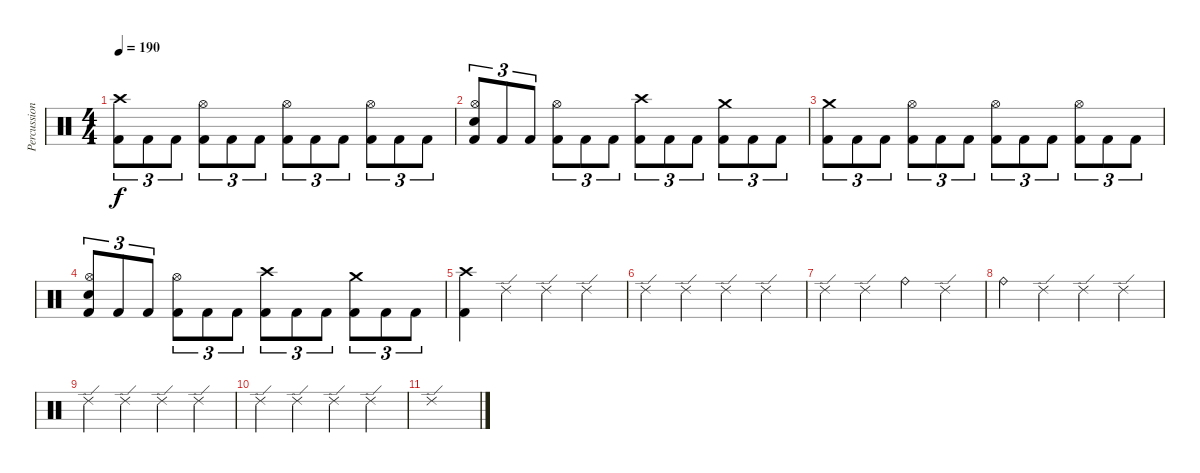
\track ("Percussion" "Percussion") {instrument percussion}
\staff {score}
\articulation defaults
\ts (4 4)
\tempo 190
\clef neutral
\ks c
("Crash high (hit)" "Kick (hit) 2").8{tu (3 2) dy f} "Kick (hit) 2".8{tu (3 2)} "Kick (hit) 2".8{tu (3 2)} ("Hi-Hat (open)" "Kick (hit) 2").8{tu (3 2)} "Kick (hit) 2".8{tu (3 2)} "Kick (hit) 2".8{tu (3 2)} ("Hi-Hat (open)" "Kick (hit) 2").8{tu (3 2)} "Kick (hit) 2".8{tu (3 2)} "Kick (hit) 2".8{tu (3 2)} ("Hi-Hat (open)" "Kick (hit) 2").8{tu (3 2)} "Kick (hit) 2".8{tu (3 2)} "Kick (hit) 2".8{tu (3 2)} |
("Hi-Hat (open)" "Snare (hit) 2" "Kick (hit) 2").8{tu (3 2)} "Kick (hit) 2".8{tu (3 2)} "Kick (hit) 2".8{tu (3 2)} ("Hi-Hat (open)" "Kick (hit) 2").8{tu (3 2)} "Kick (hit) 2".8{tu (3 2)} "Kick (hit) 2".8{tu (3 2)} ("Crash high (hit)" "Kick (hit) 2").8{tu (3 2)} "Kick (hit) 2".8{tu (3 2)} "Kick (hit) 2".8{tu (3 2)} ("Crash medium (hit)" "Kick (hit) 2").8{tu (3 2)} "Kick (hit) 2".8{tu (3 2)} "Kick (hit) 2".8{tu (3 2)} |
("Crash medium (hit)" "Kick (hit) 2").8{tu (3 2)} "Kick (hit) 2".8{tu (3 2)} "Kick (hit) 2".8{tu (3 2)} ("Hi-Hat (open)" "Kick (hit) 2").8{tu (3 2)} "Kick (hit) 2".8{tu (3 2)} "Kick (hit) 2".8{tu (3 2)} ("Hi-Hat (open)" "Kick (hit) 2").8{tu (3 2)} "Kick (hit) 2".8{tu (3 2)} "Kick (hit) 2".8{tu (3 2)} ("Hi-Hat (open)" "Kick (hit) 2").8{tu (3 2)} "Kick (hit) 2".8{tu (3 2)} "Kick (hit) 2".8{tu (3 2)} |
("Hi-Hat (open)" "Snare (hit) 2" "Kick (hit) 2").8{tu (3 2)} "Kick (hit) 2".8{tu (3 2)} "Kick (hit) 2".8{tu (3 2)} ("Hi-Hat (open)" "Kick (hit) 2").8{tu (3 2)} "Kick (hit) 2".8{tu (3 2)} "Kick (hit) 2".8{tu (3 2)} ("Crash high (hit)" "Kick (hit) 2").8{tu (3 2)} "Kick (hit) 2".8{tu (3 2)} "Kick (hit) 2".8{tu (3 2)} ("Crash medium (hit)" "Kick (hit) 2").8{tu (3 2)} "Kick (hit) 2".8{tu (3 2)} "Kick (hit) 2".8{tu (3 2)} |
("Crash high (hit)" "Kick (hit) 2").4 "Ride (edge) 2".4 "Ride (edge) 2".4 "Ride (edge) 2".4 |
"Ride (edge) 2".4 "Ride (edge) 2".4 "Ride (edge) 2".4 "Ride (edge) 2".4 |
"Ride (edge) 2".4 "Ride (edge) 2".4 "Ride (bell)".4 "Ride (edge) 2".4 |
"Ride (bell)".4 "Ride (edge) 2".4 "Ride (edge) 2".4 "Ride (edge) 2".4 |
"Ride (edge) 2".4 "Ride (edge) 2".4 "Ride (edge) 2".4 "Ride (edge) 2".4 |
"Ride (edge) 2".4 "Ride (edge) 2".4 "Ride (edge) 2".4 "Ride (edge) 2".4 |
"Ride (edge) 2".1
